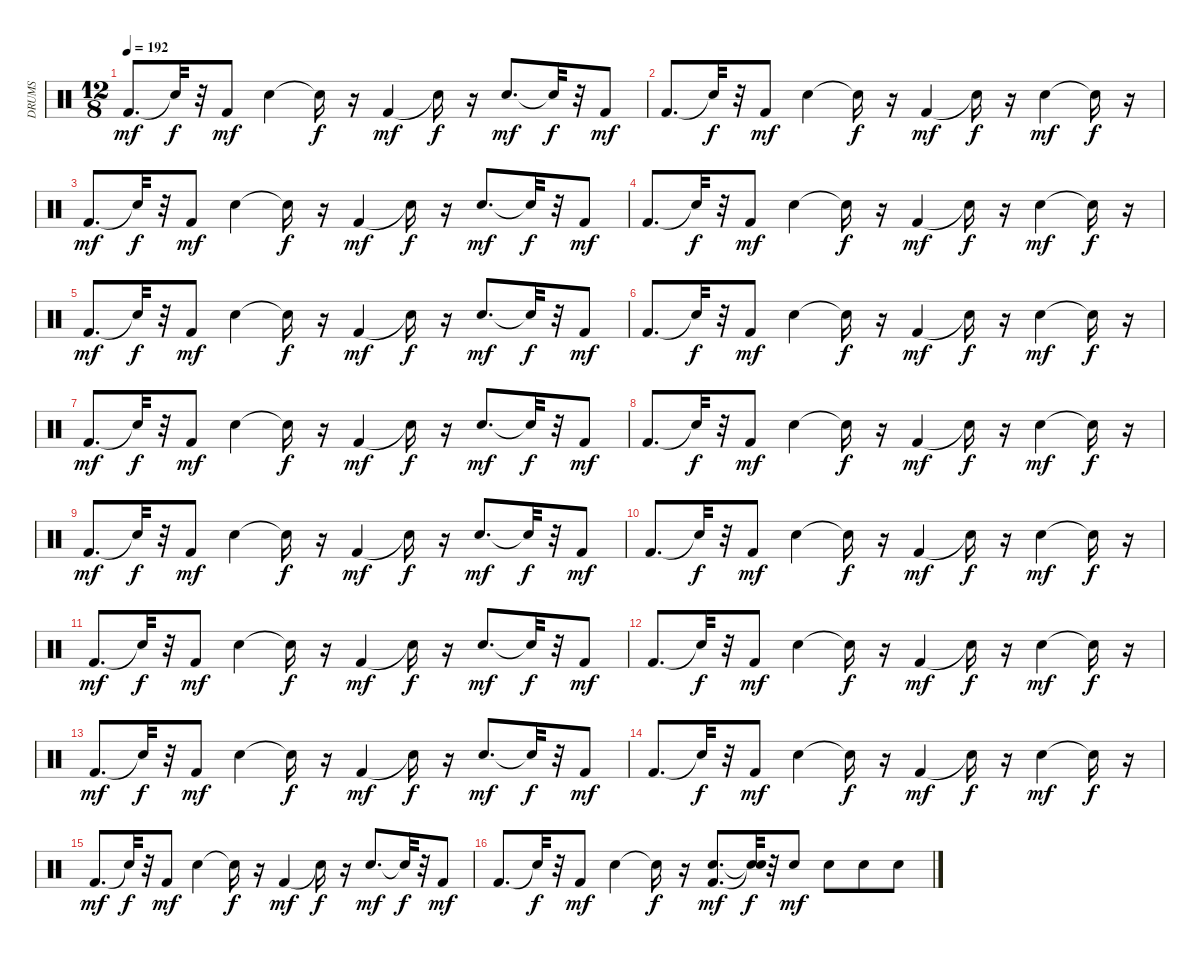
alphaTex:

\track ("DRUMS" "DRUMS") {instrument percussion}
\staff {score}
\articulation defaults
\ts (12 8)
\tempo 192
\clef neutral
\ks c "Kick (hit) 2".8{d dy mf} "Snare (hit)"{t}.32{dy f}
r.32 "Kick (hit) 2".8{dy mf} "Snare (hit) 2".4 "Snare (hit)"{t}.16{dy f} r.16 "Kick (hit) 2".4{dy mf} "Snare (hit)"{t}.16{dy f} r.16 "Snare (hit) 2".8{d dy mf} "Snare (hit)"{t}.32{dy f} r.32 "Kick (hit) 2".8{dy mf} |
"Kick (hit) 2".8{d} "Snare (hit)"{t}.32{dy f} r.32 "Kick (hit) 2".8{dy mf} "Snare (hit) 2".4 "Snare (hit)"{t}.16{dy f} r.16 "Kick (hit) 2".4{dy mf} "Snare (hit)"{t}.16{dy f} r.16 "Snare (hit) 2".4{dy mf} "Snare (hit)"{t}.16{dy f} r.16 |
"Kick (hit) 2".8{d dy mf} "Snare (hit)"{t}.32{dy f} r.32 "Kick (hit) 2".8{dy mf} "Snare (hit) 2".4 "Snare (hit)"{t}.16{dy f} r.16 "Kick (hit) 2".4{dy mf} "Snare (hit)"{t}.16{dy f} r.16 "Snare (hit) 2".8{d dy mf} "Snare (hit)"{t}.32{dy f} r.32 "Kick (hit) 2".8{dy mf} |
"Kick (hit) 2".8{d} "Snare (hit)"{t}.32{dy f} r.32 "Kick (hit) 2".8{dy mf} "Snare (hit) 2".4 "Snare (hit)"{t}.16{dy f} r.16 "Kick (hit) 2".4{dy mf} "Snare (hit)"{t}.16{dy f} r.16 "Snare (hit) 2".4{dy mf} "Snare (hit)"{t}.16{dy f} r.16 |
"Kick (hit) 2".8{d dy mf} "Snare (hit)"{t}.32{dy f} r.32 "Kick (hit) 2".8{dy mf} "Snare (hit) 2".4 "Snare (hit)"{t}.16{dy f} r.16 "Kick (hit) 2".4{dy mf} "Snare (hit)"{t}.16{dy f} r.16 "Snare (hit) 2".8{d dy mf} "Snare (hit)"{t}.32{dy f} r.32 "Kick (hit) 2".8{dy mf} |
"Kick (hit) 2".8{d} "Snare (hit)"{t}.32{dy f} r.32 "Kick (hit) 2".8{dy mf} "Snare (hit) 2".4 "Snare (hit)"{t}.16{dy f} r.16 "Kick (hit) 2".4{dy mf} "Snare (hit)"{t}.16{dy f} r.16 "Snare (hit) 2".4{dy mf} "Snare (hit)"{t}.16{dy f} r.16 |
"Kick (hit) 2".8{d dy mf} "Snare (hit)"{t}.32{dy f} r.32 "Kick (hit) 2".8{dy mf} "Snare (hit) 2".4 "Snare (hit)"{t}.16{dy f} r.16 "Kick (hit) 2".4{dy mf} "Snare (hit)"{t}.16{dy f} r.16 "Snare (hit) 2".8{d dy mf} "Snare (hit)"{t}.32{dy f} r.32 "Kick (hit) 2".8{dy mf} |
"Kick (hit) 2".8{d} "Snare (hit)"{t}.32{dy f} r.32 "Kick (hit) 2".8{dy mf} "Snare (hit) 2".4 "Snare (hit)"{t}.16{dy f} r.16 "Kick (hit) 2".4{dy mf} "Snare (hit)"{t}.16{dy f} r.16 "Snare (hit) 2".4{dy mf} "Snare (hit)"{t}.16{dy f} r.16 |
"Kick (hit) 2".8{d dy mf} "Snare (hit)"{t}.32{dy f} r.32 "Kick (hit) 2".8{dy mf} "Snare (hit) 2".4 "Snare (hit)"{t}.16{dy f} r.16 "Kick (hit) 2".4{dy mf} "Snare (hit)"{t}.16{dy f} r.16 "Snare (hit) 2".8{d dy mf} "Snare (hit)"{t}.32{dy f} r.32 "Kick (hit) 2".8{dy mf} |
"Kick (hit) 2".8{d} "Snare (hit)"{t}.32{dy f} r.32 "Kick (hit) 2".8{dy mf} "Snare (hit) 2".4 "Snare (hit)"{t}.16{dy f} r.16 "Kick (hit) 2".4{dy mf} "Snare (hit)"{t}.16{dy f} r.16 "Snare (hit) 2".4{dy mf} "Snare (hit)"{t}.16{dy f} r.16 |
"Kick (hit) 2".8{d dy mf} "Snare (hit)"{t}.32{dy f} r.32 "Kick (hit) 2".8{dy mf} "Snare (hit) 2".4 "Snare (hit)"{t}.16{dy f} r.16 "Kick (hit) 2".4{dy mf} "Snare (hit)"{t}.16{dy f} r.16 "Snare (hit) 2".8{d dy mf} "Snare (hit)"{t}.32{dy f} r.32 "Kick (hit) 2".8{dy mf} |
"Kick (hit) 2".8{d} "Snare (hit)"{t}.32{dy f} r.32 "Kick (hit) 2".8{dy mf} "Snare (hit) 2".4 "Snare (hit)"{t}.16{dy f} r.16 "Kick (hit) 2".4{dy mf} "Snare (hit)"{t}.16{dy f} r.16 "Snare (hit) 2".4{dy mf} "Snare (hit)"{t}.16{dy f} r.16 |
"Kick (hit) 2".8{d dy mf} "Snare (hit)"{t}.32{dy f} r.32 "Kick (hit) 2".8{dy mf} "Snare (hit) 2".4 "Snare (hit)"{t}.16{dy f} r.16 "Kick (hit) 2".4{dy mf} "Snare (hit)"{t}.16{dy f} r.16 "Snare (hit) 2".8{d dy mf} "Snare (hit)"{t}.32{dy f} r.32 "Kick (hit) 2".8{dy mf} |
"Kick (hit) 2".8{d} "Snare (hit)"{t}.32{dy f} r.32 "Kick (hit) 2".8{dy mf} "Snare (hit) 2".4 "Snare (hit)"{t}.16{dy f} r.16 "Kick (hit) 2".4{dy mf} "Snare (hit)"{t}.16{dy f} r.16 "Snare (hit) 2".4{dy mf} "Snare (hit)"{t}.16{dy f} r.16 |
"Kick (hit) 2".8{d dy mf} "Snare (hit)"{t}.32{dy f} r.32 "Kick (hit) 2".8{dy mf} "Snare (hit) 2".4 "Snare (hit)"{t}.16{dy f} r.16 "Kick (hit) 2".4{dy mf} "Snare (hit)"{t}.16{dy f} r.16 "Snare (hit) 2".8{d dy mf} "Snare (hit)"{t}.32{dy f} r.32 "Kick (hit) 2".8{dy mf} |
"Kick (hit) 2".8{d} "Snare (hit)"{t}.32{dy f} r.32 "Kick (hit) 2".8{dy mf} "Snare (hit) 2".4 "Snare (hit)"{t}.16{dy f} r.16 ("Kick (hit) 2" "Snare (hit) 2").8{d dy mf} ("Snare (hit)"{t} "Snare (hit)"{t}).32{dy f} r.32 "Snare (hit) 2".8{dy mf} "Snare (hit) 2".8 "Snare (hit) 2".8 "Snare (hit) 2".8
